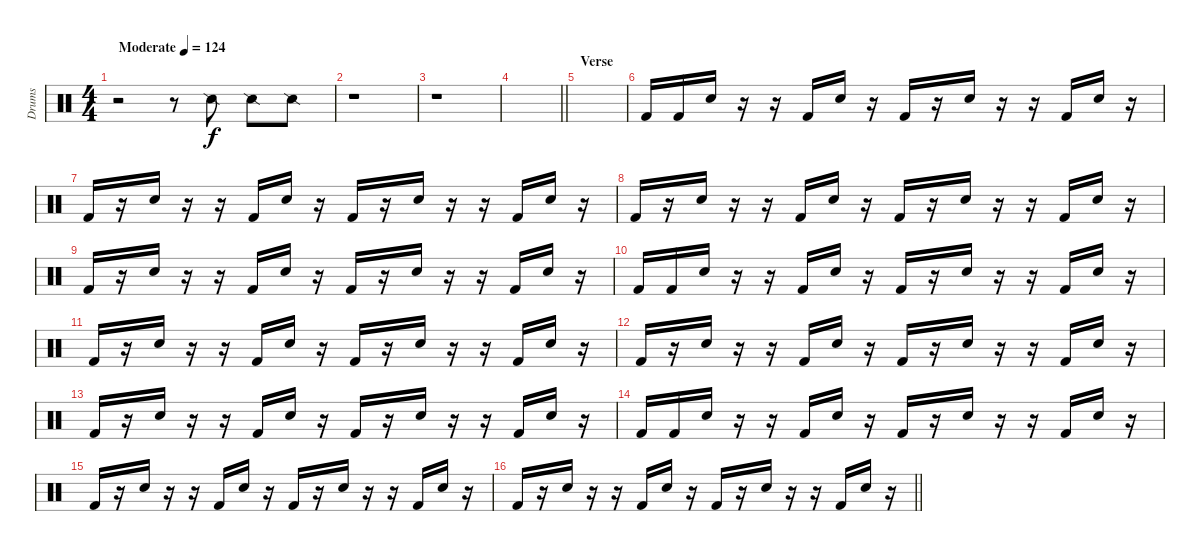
\track ("Drums" "Drums") {instrument percussion}
\staff {score}
\articulation defaults
\ts (4 4)
\tempo (124 "Moderate")
\clef neutral
\ks c
r.2{dy f} r.8 "Snare (side stick) 2".8 "Snare (side stick) 2".8 "Snare (side stick) 2".8 |
r.1 |
r.1 |
\barLineRight lightlight
|
\section ("" "Verse")
|
"Kick (hit) 2".16 "Kick (hit) 2".16 "Snare (hit) 2".16 r.16 r.16 "Kick (hit) 2".16 "Snare (hit) 2".16 r.16 "Kick (hit) 2".16 r.16 "Snare (hit) 2".16 r.16 r.16 "Kick (hit) 2".16 "Snare (hit) 2".16 r.16 |
"Kick (hit) 2".16 r.16 "Snare (hit) 2".16 r.16 r.16 "Kick (hit) 2".16 "Snare (hit) 2".16 r.16 "Kick (hit) 2".16 r.16 "Snare (hit) 2".16 r.16 r.16 "Kick (hit) 2".16 "Snare (hit) 2".16 r.16 |
"Kick (hit) 2".16 r.16 "Snare (hit) 2".16 r.16 r.16 "Kick (hit) 2".16 "Snare (hit) 2".16 r.16 "Kick (hit) 2".16 r.16 "Snare (hit) 2".16 r.16 r.16 "Kick (hit) 2".16 "Snare (hit) 2".16 r.16 |
"Kick (hit) 2".16 r.16 "Snare (hit) 2".16 r.16 r.16 "Kick (hit) 2".16 "Snare (hit) 2".16 r.16 "Kick (hit) 2".16 r.16 "Snare (hit) 2".16 r.16 r.16 "Kick (hit) 2".16 "Snare (hit) 2".16 r.16 |
"Kick (hit) 2".16 "Kick (hit) 2".16 "Snare (hit) 2".16 r.16 r.16 "Kick (hit) 2".16 "Snare (hit) 2".16 r.16 "Kick (hit) 2".16 r.16 "Snare (hit) 2".16 r.16 r.16 "Kick (hit) 2".16 "Snare (hit) 2".16 r.16 |
"Kick (hit) 2".16 r.16 "Snare (hit) 2".16 r.16 r.16 "Kick (hit) 2".16 "Snare (hit) 2".16 r.16 "Kick (hit) 2".16 r.16 "Snare (hit) 2".16 r.16 r.16 "Kick (hit) 2".16 "Snare (hit) 2".16 r.16 |
"Kick (hit) 2".16 r.16 "Snare (hit) 2".16 r.16 r.16 "Kick (hit) 2".16 "Snare (hit) 2".16 r.16 "Kick (hit) 2".16 r.16 "Snare (hit) 2".16 r.16 r.16 "Kick (hit) 2".16 "Snare (hit) 2".16 r.16 |
"Kick (hit) 2".16 r.16 "Snare (hit) 2".16 r.16 r.16 "Kick (hit) 2".16 "Snare (hit) 2".16 r.16 "Kick (hit) 2".16 r.16 "Snare (hit) 2".16 r.16 r.16 "Kick (hit) 2".16 "Snare (hit) 2".16 r.16 |
"Kick (hit) 2".16 "Kick (hit) 2".16 "Snare (hit) 2".16 r.16 r.16 "Kick (hit) 2".16 "Snare (hit) 2".16 r.16 "Kick (hit) 2".16 r.16 "Snare (hit) 2".16 r.16 r.16 "Kick (hit) 2".16 "Snare (hit) 2".16 r.16 |
"Kick (hit) 2".16 r.16 "Snare (hit) 2".16 r.16 r.16 "Kick (hit) 2".16 "Snare (hit) 2".16 r.16 "Kick (hit) 2".16 r.16 "Snare (hit) 2".16 r.16 r.16 "Kick (hit) 2".16 "Snare (hit) 2".16 r.16 |
\barLineRight lightlight "Kick (hit) 2".16
r.16 "Snare (hit) 2".16 r.16 r.16 "Kick (hit) 2".16 "Snare (hit) 2".16 r.16 "Kick (hit) 2".16 r.16 "Snare (hit) 2".16 r.16 r.16 "Kick (hit) 2".16 "Snare (hit) 2".16 r.16
